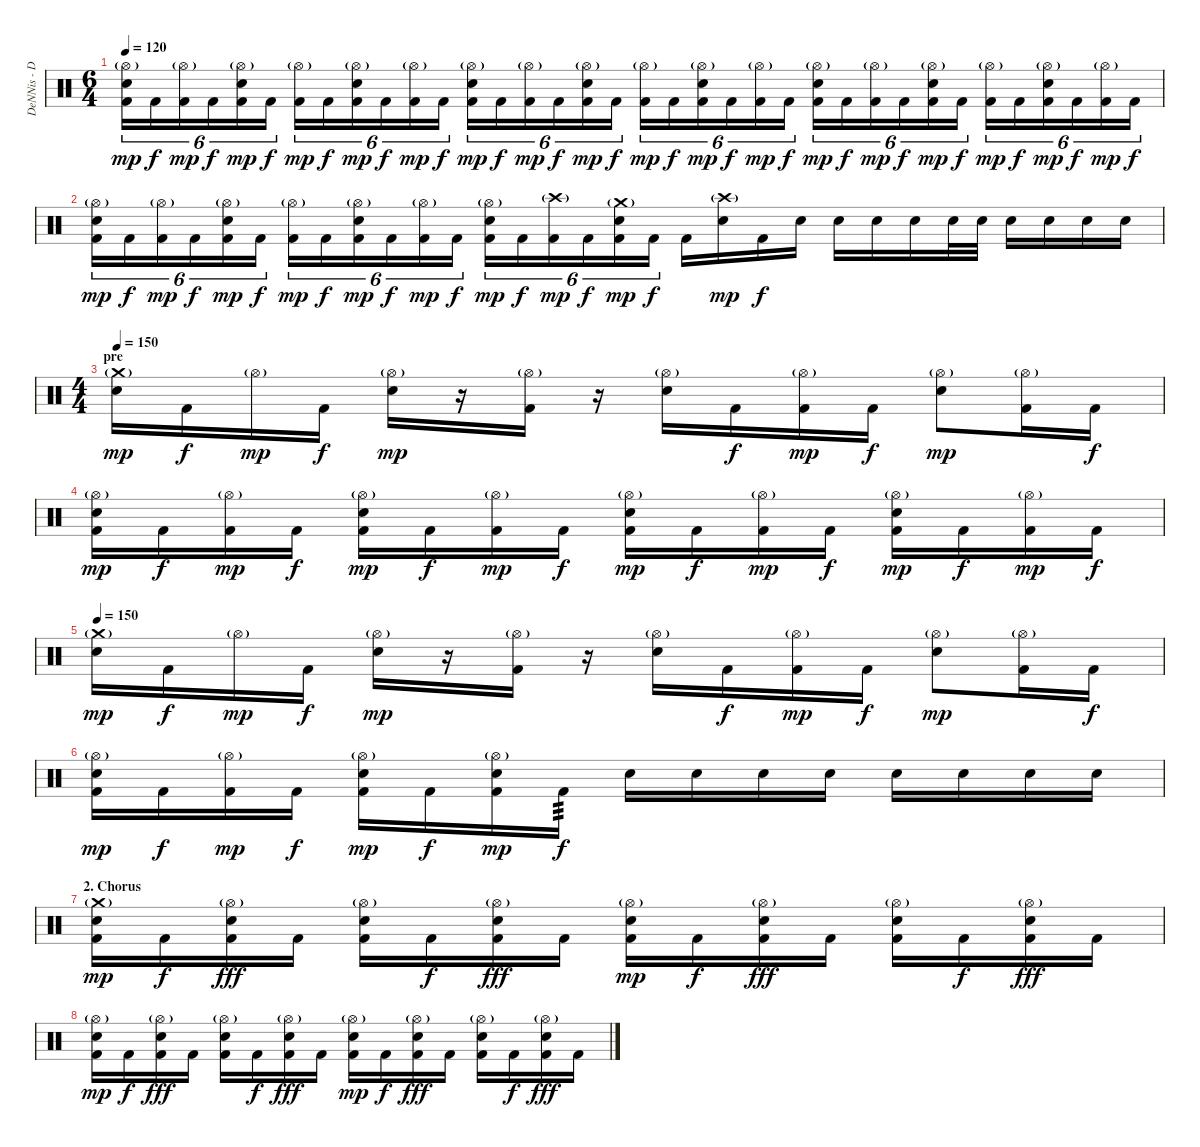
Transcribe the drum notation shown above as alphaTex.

\track ("DeNNis - Drums" "DeNNis - D") {instrument percussion}
\staff {score}
\articulation defaults
\ts (6 4)
\tempo 120
\clef neutral
\ks c
("Hi-Hat (open)"{g} "Electric Snare (hit)" "Kick (hit) 2").16{tu (6 4) dy mp} "Kick (hit) 2".16{tu (6 4) dy f} ("Hi-Hat (open)"{g} "Kick (hit) 2").16{tu (6 4) dy mp} "Kick (hit) 2".16{tu (6 4) dy f} ("Hi-Hat (open)"{g} "Electric Snare (hit)" "Kick (hit) 2").16{tu (6 4) dy mp} "Kick (hit) 2".16{tu (6 4) dy f} ("Hi-Hat (open)"{g} "Kick (hit) 2").16{tu (6 4) dy mp} "Kick (hit) 2".16{tu (6 4) dy f} ("Hi-Hat (open)"{g} "Electric Snare (hit)" "Kick (hit) 2").16{tu (6 4) dy mp} "Kick (hit) 2".16{tu (6 4) dy f} ("Hi-Hat (open)"{g} "Kick (hit) 2").16{tu (6 4) dy mp} "Kick (hit) 2".16{tu (6 4) dy f} ("Hi-Hat (open)"{g} "Electric Snare (hit)" "Kick (hit) 2").16{tu (6 4) dy mp} "Kick (hit) 2".16{tu (6 4) dy f} ("Hi-Hat (open)"{g} "Kick (hit) 2").16{tu (6 4) dy mp} "Kick (hit) 2".16{tu (6 4) dy f} ("Hi-Hat (open)"{g} "Electric Snare (hit)" "Kick (hit) 2").16{tu (6 4) dy mp} "Kick (hit) 2".16{tu (6 4) dy f} ("Hi-Hat (open)"{g} "Kick (hit) 2").16{tu (6 4) dy mp} "Kick (hit) 2".16{tu (6 4) dy f} ("Hi-Hat (open)"{g} "Electric Snare (hit)" "Kick (hit) 2").16{tu (6 4) dy mp} "Kick (hit) 2".16{tu (6 4) dy f} ("Hi-Hat (open)"{g} "Kick (hit) 2").16{tu (6 4) dy mp} "Kick (hit) 2".16{tu (6 4) dy f} ("Hi-Hat (open)"{g} "Electric Snare (hit)" "Kick (hit) 2").16{tu (6 4) dy mp} "Kick (hit) 2".16{tu (6 4) dy f} ("Hi-Hat (open)"{g} "Kick (hit) 2").16{tu (6 4) dy mp} "Kick (hit) 2".16{tu (6 4) dy f} ("Hi-Hat (open)"{g} "Electric Snare (hit)" "Kick (hit) 2").16{tu (6 4) dy mp} "Kick (hit) 2".16{tu (6 4) dy f} ("Hi-Hat (open)"{g} "Kick (hit) 2").16{tu (6 4) dy mp} "Kick (hit) 2".16{tu (6 4) dy f} ("Hi-Hat (open)"{g} "Electric Snare (hit)" "Kick (hit) 2").16{tu (6 4) dy mp} "Kick (hit) 2".16{tu (6 4) dy f} ("Hi-Hat (open)"{g} "Kick (hit) 2").16{tu (6 4) dy mp} "Kick (hit) 2".16{tu (6 4) dy f} |
("Hi-Hat (open)"{g} "Electric Snare (hit)" "Kick (hit) 2").16{tu (6 4) dy mp} "Kick (hit) 2".16{tu (6 4) dy f} ("Hi-Hat (open)"{g} "Kick (hit) 2").16{tu (6 4) dy mp} "Kick (hit) 2".16{tu (6 4) dy f} ("Hi-Hat (open)"{g} "Electric Snare (hit)" "Kick (hit) 2").16{tu (6 4) dy mp} "Kick (hit) 2".16{tu (6 4) dy f} ("Hi-Hat (open)"{g} "Kick (hit) 2").16{tu (6 4) dy mp} "Kick (hit) 2".16{tu (6 4) dy f} ("Hi-Hat (open)"{g} "Electric Snare (hit)" "Kick (hit) 2").16{tu (6 4) dy mp} "Kick (hit) 2".16{tu (6 4) dy f} ("Hi-Hat (open)"{g} "Kick (hit) 2").16{tu (6 4) dy mp} "Kick (hit) 2".16{tu (6 4) dy f} ("Hi-Hat (open)"{g} "Electric Snare (hit)" "Kick (hit) 2").16{tu (6 4) dy mp} "Kick (hit) 2".16{tu (6 4) dy f} ("Crash high (hit)"{g} "Kick (hit) 2").16{tu (6 4) dy mp} "Kick (hit) 2".16{tu (6 4) dy f} ("Crash medium (hit)"{g} "Electric Snare (hit)" "Kick (hit) 2").16{tu (6 4) dy mp} "Kick (hit) 2".16{tu (6 4) dy f} "Kick (hit) 2".16 ("Crash high (hit)"{g} "Electric Snare (hit)").16{dy mp} "Kick (hit) 2".16{dy f} "Electric Snare (hit)".16 "Electric Snare (hit)".16 "Electric Snare (hit)".16 "Electric Snare (hit)".16 "Electric Snare (hit)".32 "Electric Snare (hit)".32 "Electric Snare (hit)".16 "Electric Snare (hit)".16 "Electric Snare (hit)".16 "Electric Snare (hit)".16 |
\ts (4 4)
\section ("" "pre")
\tempo 150
("Crash medium (hit)"{g} "Electric Snare (hit)").16{dy mp} "Kick (hit) 2".16{dy f} "Hi-Hat (open)"{g}.16{dy mp} "Kick (hit) 2".16{dy f} ("Hi-Hat (open)"{g} "Electric Snare (hit)").16{dy mp} r.16 ("Hi-Hat (open)"{g} "Kick (hit) 2").16 r.16 ("Hi-Hat (open)"{g} "Electric Snare (hit)").16 "Kick (hit) 2".16{dy f} ("Hi-Hat (open)"{g} "Kick (hit) 2").16{dy mp} "Kick (hit) 2".16{dy f} ("Hi-Hat (open)"{g} "Electric Snare (hit)").8{dy mp} ("Hi-Hat (open)"{g} "Kick (hit) 2").16 "Kick (hit) 2".16{dy f} |
("Hi-Hat (open)"{g} "Electric Snare (hit)" "Kick (hit) 2").16{dy mp} "Kick (hit) 2".16{dy f} ("Hi-Hat (open)"{g} "Kick (hit) 2").16{dy mp} "Kick (hit) 2".16{dy f} ("Hi-Hat (open)"{g} "Electric Snare (hit)" "Kick (hit) 2").16{dy mp} "Kick (hit) 2".16{dy f} ("Hi-Hat (open)"{g} "Kick (hit) 2").16{dy mp} "Kick (hit) 2".16{dy f} ("Hi-Hat (open)"{g} "Electric Snare (hit)" "Kick (hit) 2").16{dy mp} "Kick (hit) 2".16{dy f} ("Hi-Hat (open)"{g} "Kick (hit) 2").16{dy mp} "Kick (hit) 2".16{dy f} ("Hi-Hat (open)"{g} "Electric Snare (hit)" "Kick (hit) 2").16{dy mp} "Kick (hit) 2".16{dy f} ("Hi-Hat (open)"{g} "Kick (hit) 2").16{dy mp} "Kick (hit) 2".16{dy f} |
\tempo 150
("Crash medium (hit)"{g} "Electric Snare (hit)").16{dy mp} "Kick (hit) 2".16{dy f} "Hi-Hat (open)"{g}.16{dy mp} "Kick (hit) 2".16{dy f} ("Hi-Hat (open)"{g} "Electric Snare (hit)").16{dy mp} r.16 ("Hi-Hat (open)"{g} "Kick (hit) 2").16 r.16 ("Hi-Hat (open)"{g} "Electric Snare (hit)").16 "Kick (hit) 2".16{dy f} ("Hi-Hat (open)"{g} "Kick (hit) 2").16{dy mp} "Kick (hit) 2".16{dy f} ("Hi-Hat (open)"{g} "Electric Snare (hit)").8{dy mp} ("Hi-Hat (open)"{g} "Kick (hit) 2").16 "Kick (hit) 2".16{dy f} |
("Hi-Hat (open)"{g} "Electric Snare (hit)" "Kick (hit) 2").16{dy mp} "Kick (hit) 2".16{dy f} ("Hi-Hat (open)"{g} "Kick (hit) 2").16{dy mp} "Kick (hit) 2".16{dy f} ("Hi-Hat (open)"{g} "Electric Snare (hit)" "Kick (hit) 2").16{dy mp} "Kick (hit) 2".16{dy f} ("Hi-Hat (open)"{g} "Electric Snare (hit)" "Kick (hit) 2").16{dy mp} "Kick (hit) 2".16{tp 3 dy f} "Electric Snare (hit)".16 "Electric Snare (hit)".16 "Electric Snare (hit)".16 "Electric Snare (hit)".16 "Electric Snare (hit)".16 "Electric Snare (hit)".16 "Electric Snare (hit)".16 "Electric Snare (hit)".16 |
\section ("" "2. Chorus")
("Crash medium (hit)"{g} "Electric Snare (hit)" "Kick (hit) 2").16{dy mp} "Kick (hit) 2".16{dy f} ("Hi-Hat (open)"{g} "Electric Snare (hit)" "Kick (hit) 2").16{dy fff} "Kick (hit) 2".16 ("Hi-Hat (open)"{g} "Electric Snare (hit)" "Kick (hit) 2").16 "Kick (hit) 2".16{dy f} ("Hi-Hat (open)"{g} "Electric Snare (hit)" "Kick (hit) 2").16{dy fff} "Kick (hit) 2".16 ("Hi-Hat (open)"{g} "Electric Snare (hit)" "Kick (hit) 2").16{dy mp} "Kick (hit) 2".16{dy f} ("Hi-Hat (open)"{g} "Electric Snare (hit)" "Kick (hit) 2").16{dy fff} "Kick (hit) 2".16 ("Hi-Hat (open)"{g} "Electric Snare (hit)" "Kick (hit) 2").16 "Kick (hit) 2".16{dy f} ("Hi-Hat (open)"{g} "Electric Snare (hit)" "Kick (hit) 2").16{dy fff} "Kick (hit) 2".16 |
("Hi-Hat (open)"{g} "Electric Snare (hit)" "Kick (hit) 2").16{dy mp} "Kick (hit) 2".16{dy f} ("Hi-Hat (open)"{g} "Electric Snare (hit)" "Kick (hit) 2").16{dy fff} "Kick (hit) 2".16 ("Hi-Hat (open)"{g} "Electric Snare (hit)" "Kick (hit) 2").16 "Kick (hit) 2".16{dy f} ("Hi-Hat (open)"{g} "Electric Snare (hit)" "Kick (hit) 2").16{dy fff} "Kick (hit) 2".16 ("Hi-Hat (open)"{g} "Electric Snare (hit)" "Kick (hit) 2").16{dy mp} "Kick (hit) 2".16{dy f} ("Hi-Hat (open)"{g} "Electric Snare (hit)" "Kick (hit) 2").16{dy fff} "Kick (hit) 2".16 ("Hi-Hat (open)"{g} "Electric Snare (hit)" "Kick (hit) 2").16 "Kick (hit) 2".16{dy f} ("Hi-Hat (open)"{g} "Electric Snare (hit)" "Kick (hit) 2").16{dy fff} "Kick (hit) 2".16
